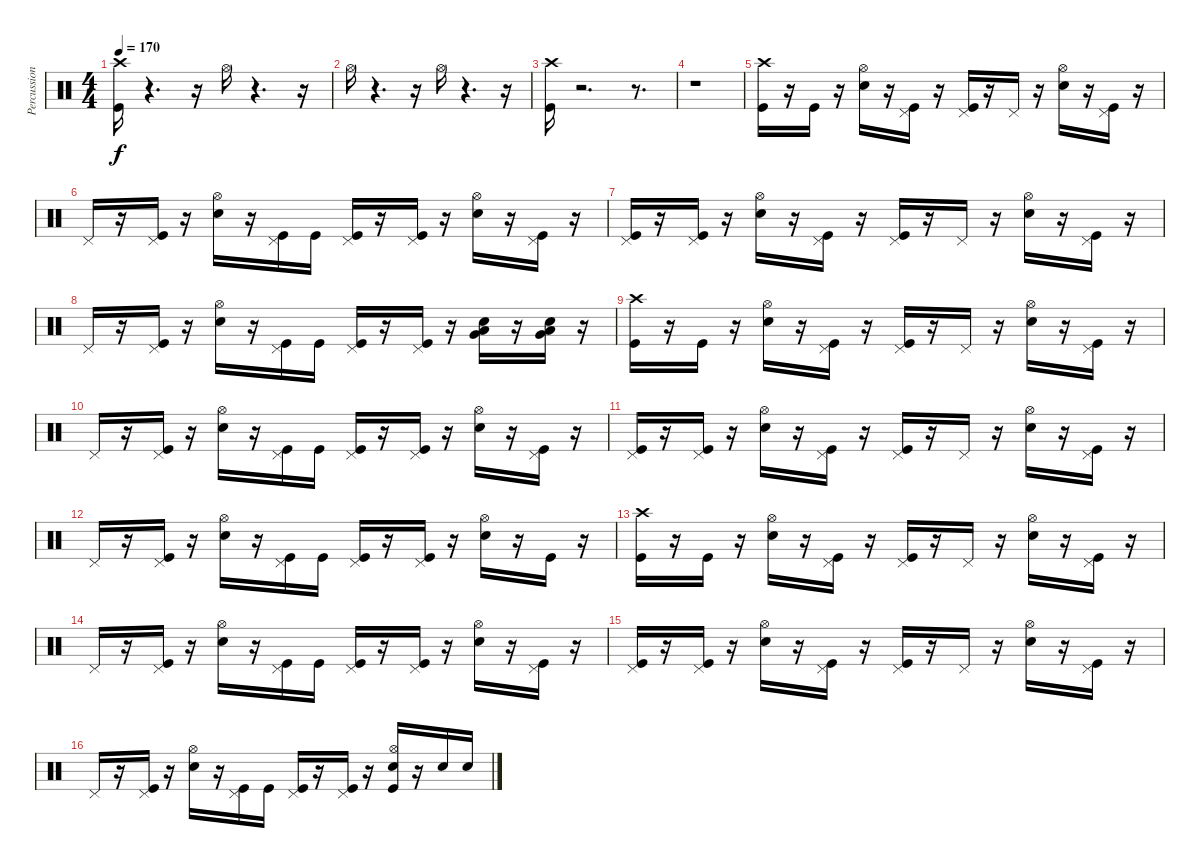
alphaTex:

\track ("Percussion" "Percussion") {instrument percussion}
\staff {score}
\articulation defaults
\ts (4 4)
\tempo 170
\clef neutral
\ks c
("Crash high (hit)" "Kick (hit)").16{dy f} r.4{d} r.16 "Hi-Hat (open)".16 r.4{d} r.16 |
"Hi-Hat (open)".16 r.4{d} r.16 "Hi-Hat (open)".16 r.4{d} r.16 |
("Crash high (hit)" "Kick (hit)").16 r.2{d} r.8{d} |
r.1 |
("Crash high (hit)" "Kick (hit)").16 r.16 "Kick (hit)".16 r.16 ("Hi-Hat (open)" "Electric Snare (hit)").16 r.16 ("Pedal Hi-Hat (hit)" "Kick (hit)").16 r.16 ("Pedal Hi-Hat (hit)" "Kick (hit)").16 r.16 "Pedal Hi-Hat (hit)".16 r.16 ("Hi-Hat (open)" "Electric Snare (hit)").16 r.16 ("Pedal Hi-Hat (hit)" "Kick (hit)").16 r.16 |
"Pedal Hi-Hat (hit)".16 r.16 ("Pedal Hi-Hat (hit)" "Kick (hit)").16 r.16 ("Hi-Hat (open)" "Electric Snare (hit)").16 r.16 ("Pedal Hi-Hat (hit)" "Kick (hit)").16 "Kick (hit)".16 ("Pedal Hi-Hat (hit)" "Kick (hit)").16 r.16 ("Pedal Hi-Hat (hit)" "Kick (hit)").16 r.16 ("Hi-Hat (open)" "Electric Snare (hit)").16 r.16 ("Pedal Hi-Hat (hit)" "Kick (hit)").16 r.16 |
("Pedal Hi-Hat (hit)" "Kick (hit)").16 r.16 ("Pedal Hi-Hat (hit)" "Kick (hit)").16 r.16 ("Hi-Hat (open)" "Electric Snare (hit)").16 r.16 ("Pedal Hi-Hat (hit)" "Kick (hit)").16 r.16 ("Pedal Hi-Hat (hit)" "Kick (hit)").16 r.16 "Pedal Hi-Hat (hit)".16 r.16 ("Hi-Hat (open)" "Electric Snare (hit)").16 r.16 ("Pedal Hi-Hat (hit)" "Kick (hit)").16 r.16 |
"Pedal Hi-Hat (hit)".16 r.16 ("Pedal Hi-Hat (hit)" "Kick (hit)").16 r.16 ("Hi-Hat (open)" "Electric Snare (hit)").16 r.16 ("Pedal Hi-Hat (hit)" "Kick (hit)").16 "Kick (hit)".16 ("Pedal Hi-Hat (hit)" "Kick (hit)").16 r.16 ("Pedal Hi-Hat (hit)" "Kick (hit)").16 r.16 ("Very Low Tom (hit)" "Low Floor Tom (hit)" "Electric Snare (hit)").16 r.16 ("Very Low Tom (hit)" "Low Floor Tom (hit)" "Electric Snare (hit)").16 r.16 |
("Crash high (hit)" "Kick (hit)").16 r.16 "Kick (hit)".16 r.16 ("Hi-Hat (open)" "Electric Snare (hit)").16 r.16 ("Pedal Hi-Hat (hit)" "Kick (hit)").16 r.16 ("Pedal Hi-Hat (hit)" "Kick (hit)").16 r.16 "Pedal Hi-Hat (hit)".16 r.16 ("Hi-Hat (open)" "Electric Snare (hit)").16 r.16 ("Pedal Hi-Hat (hit)" "Kick (hit)").16 r.16 |
"Pedal Hi-Hat (hit)".16 r.16 ("Pedal Hi-Hat (hit)" "Kick (hit)").16 r.16 ("Hi-Hat (open)" "Electric Snare (hit)").16 r.16 ("Pedal Hi-Hat (hit)" "Kick (hit)").16 "Kick (hit)".16 ("Pedal Hi-Hat (hit)" "Kick (hit)").16 r.16 ("Pedal Hi-Hat (hit)" "Kick (hit)").16 r.16 ("Hi-Hat (open)" "Electric Snare (hit)").16 r.16 ("Pedal Hi-Hat (hit)" "Kick (hit)").16 r.16 |
("Pedal Hi-Hat (hit)" "Kick (hit)").16 r.16 ("Pedal Hi-Hat (hit)" "Kick (hit)").16 r.16 ("Hi-Hat (open)" "Electric Snare (hit)").16 r.16 ("Pedal Hi-Hat (hit)" "Kick (hit)").16 r.16 ("Pedal Hi-Hat (hit)" "Kick (hit)").16 r.16 "Pedal Hi-Hat (hit)".16 r.16 ("Hi-Hat (open)" "Electric Snare (hit)").16 r.16 ("Pedal Hi-Hat (hit)" "Kick (hit)").16 r.16 |
"Pedal Hi-Hat (hit)".16 r.16 ("Pedal Hi-Hat (hit)" "Kick (hit)").16 r.16 ("Hi-Hat (open)" "Electric Snare (hit)").16 r.16 ("Pedal Hi-Hat (hit)" "Kick (hit)").16 "Kick (hit)".16 ("Pedal Hi-Hat (hit)" "Kick (hit)").16 r.16 ("Pedal Hi-Hat (hit)" "Kick (hit)").16 r.16 ("Hi-Hat (open)" "Electric Snare (hit)").16 r.16 "Kick (hit)".16 r.16 |
("Crash high (hit)" "Kick (hit)").16 r.16 "Kick (hit)".16 r.16 ("Hi-Hat (open)" "Electric Snare (hit)").16 r.16 ("Pedal Hi-Hat (hit)" "Kick (hit)").16 r.16 ("Pedal Hi-Hat (hit)" "Kick (hit)").16 r.16 "Pedal Hi-Hat (hit)".16 r.16 ("Hi-Hat (open)" "Electric Snare (hit)").16 r.16 ("Pedal Hi-Hat (hit)" "Kick (hit)").16 r.16 |
"Pedal Hi-Hat (hit)".16 r.16 ("Pedal Hi-Hat (hit)" "Kick (hit)").16 r.16 ("Hi-Hat (open)" "Electric Snare (hit)").16 r.16 ("Pedal Hi-Hat (hit)" "Kick (hit)").16 "Kick (hit)".16 ("Pedal Hi-Hat (hit)" "Kick (hit)").16 r.16 ("Pedal Hi-Hat (hit)" "Kick (hit)").16 r.16 ("Hi-Hat (open)" "Electric Snare (hit)").16 r.16 ("Pedal Hi-Hat (hit)" "Kick (hit)").16 r.16 |
("Pedal Hi-Hat (hit)" "Kick (hit)").16 r.16 ("Pedal Hi-Hat (hit)" "Kick (hit)").16 r.16 ("Hi-Hat (open)" "Electric Snare (hit)").16 r.16 ("Pedal Hi-Hat (hit)" "Kick (hit)").16 r.16 ("Pedal Hi-Hat (hit)" "Kick (hit)").16 r.16 "Pedal Hi-Hat (hit)".16 r.16 ("Hi-Hat (open)" "Electric Snare (hit)").16 r.16 ("Pedal Hi-Hat (hit)" "Kick (hit)").16 r.16 |
"Pedal Hi-Hat (hit)".16 r.16 ("Pedal Hi-Hat (hit)" "Kick (hit)").16 r.16 ("Hi-Hat (open)" "Electric Snare (hit)").16 r.16 ("Pedal Hi-Hat (hit)" "Kick (hit)").16 "Kick (hit)".16 ("Pedal Hi-Hat (hit)" "Kick (hit)").16 r.16 ("Pedal Hi-Hat (hit)" "Kick (hit)").16 r.16 ("Hi-Hat (open)" "Kick (hit)" "Electric Snare (hit)").16 r.16 "Electric Snare (hit)".16 "Electric Snare (hit)".16
